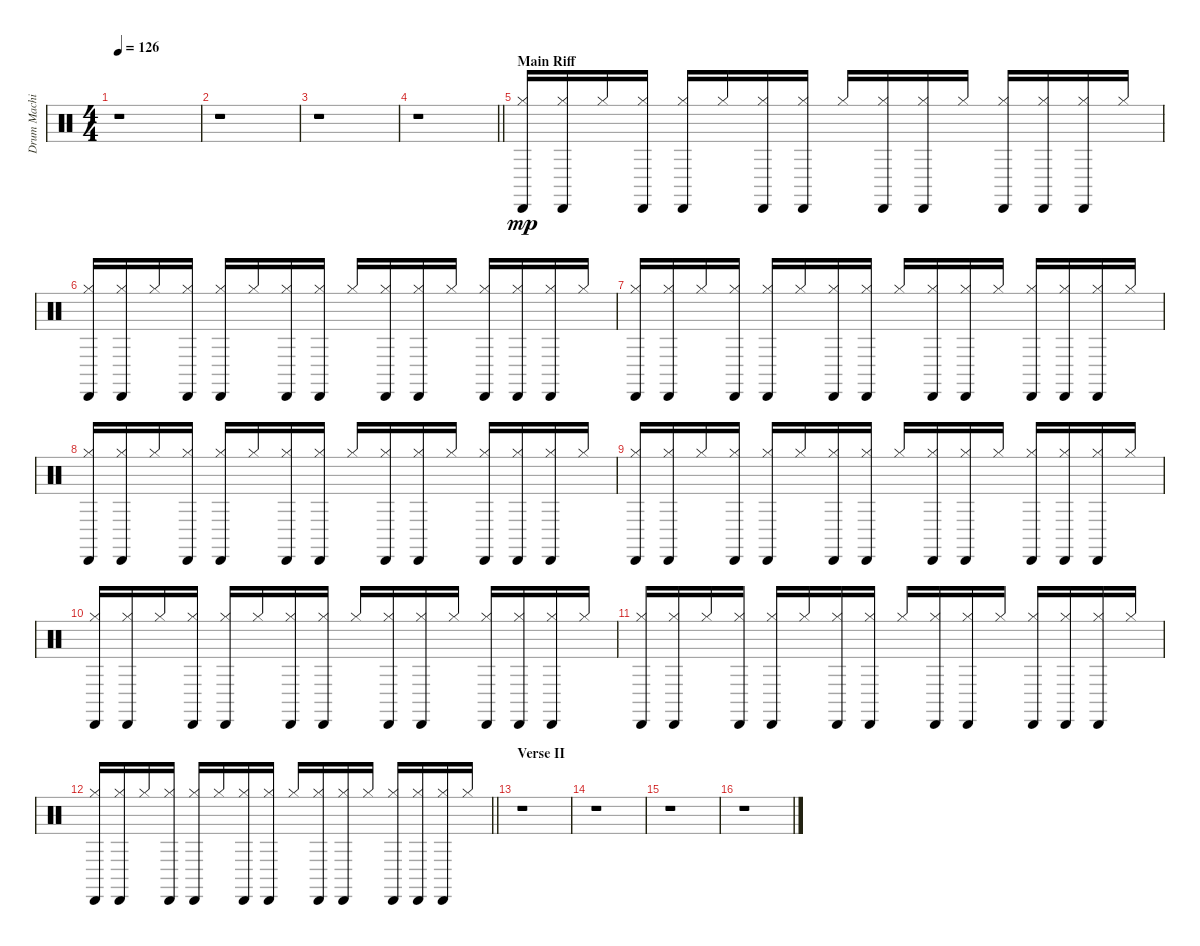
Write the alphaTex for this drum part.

\track ("Drum Machine" "Drum Machi") {instrument percussion}
\staff {score}
\articulation defaults
\ts (4 4)
\tempo 126
\clef neutral
\ks c
r.1{dy mp} |
r.1 |
r.1 |
\barLineRight lightlight
r.1 |
\section ("" "Main Riff")
("Cabasa (hit)" "Hi-Hat (closed)").16 ("Cabasa (hit)" "Hi-Hat (closed)").16 "Hi-Hat (closed)".16 ("Cabasa (hit)" "Hi-Hat (closed)").16 ("Cabasa (hit)" "Hi-Hat (closed)").16 "Hi-Hat (closed)".16 ("Cabasa (hit)" "Hi-Hat (closed)").16 ("Cabasa (hit)" "Hi-Hat (closed)").16 "Hi-Hat (closed)".16 ("Cabasa (hit)" "Hi-Hat (closed)").16 ("Cabasa (hit)" "Hi-Hat (closed)").16 "Hi-Hat (closed)".16 ("Cabasa (hit)" "Hi-Hat (closed)").16 ("Cabasa (hit)" "Hi-Hat (closed)").16 ("Cabasa (hit)" "Hi-Hat (closed)").16 "Hi-Hat (closed)".16 |
("Cabasa (hit)" "Hi-Hat (closed)").16 ("Cabasa (hit)" "Hi-Hat (closed)").16 "Hi-Hat (closed)".16 ("Cabasa (hit)" "Hi-Hat (closed)").16 ("Cabasa (hit)" "Hi-Hat (closed)").16 "Hi-Hat (closed)".16 ("Cabasa (hit)" "Hi-Hat (closed)").16 ("Cabasa (hit)" "Hi-Hat (closed)").16 "Hi-Hat (closed)".16 ("Cabasa (hit)" "Hi-Hat (closed)").16 ("Cabasa (hit)" "Hi-Hat (closed)").16 "Hi-Hat (closed)".16 ("Cabasa (hit)" "Hi-Hat (closed)").16 ("Cabasa (hit)" "Hi-Hat (closed)").16 ("Cabasa (hit)" "Hi-Hat (closed)").16 "Hi-Hat (closed)".16 |
("Cabasa (hit)" "Hi-Hat (closed)").16 ("Cabasa (hit)" "Hi-Hat (closed)").16 "Hi-Hat (closed)".16 ("Cabasa (hit)" "Hi-Hat (closed)").16 ("Cabasa (hit)" "Hi-Hat (closed)").16 "Hi-Hat (closed)".16 ("Cabasa (hit)" "Hi-Hat (closed)").16 ("Cabasa (hit)" "Hi-Hat (closed)").16 "Hi-Hat (closed)".16 ("Cabasa (hit)" "Hi-Hat (closed)").16 ("Cabasa (hit)" "Hi-Hat (closed)").16 "Hi-Hat (closed)".16 ("Cabasa (hit)" "Hi-Hat (closed)").16 ("Cabasa (hit)" "Hi-Hat (closed)").16 ("Cabasa (hit)" "Hi-Hat (closed)").16 "Hi-Hat (closed)".16 |
("Cabasa (hit)" "Hi-Hat (closed)").16 ("Cabasa (hit)" "Hi-Hat (closed)").16 "Hi-Hat (closed)".16 ("Cabasa (hit)" "Hi-Hat (closed)").16 ("Cabasa (hit)" "Hi-Hat (closed)").16 "Hi-Hat (closed)".16 ("Cabasa (hit)" "Hi-Hat (closed)").16 ("Cabasa (hit)" "Hi-Hat (closed)").16 "Hi-Hat (closed)".16 ("Cabasa (hit)" "Hi-Hat (closed)").16 ("Cabasa (hit)" "Hi-Hat (closed)").16 "Hi-Hat (closed)".16 ("Cabasa (hit)" "Hi-Hat (closed)").16 ("Cabasa (hit)" "Hi-Hat (closed)").16 ("Cabasa (hit)" "Hi-Hat (closed)").16 "Hi-Hat (closed)".16 |
("Cabasa (hit)" "Hi-Hat (closed)").16 ("Cabasa (hit)" "Hi-Hat (closed)").16 "Hi-Hat (closed)".16 ("Cabasa (hit)" "Hi-Hat (closed)").16 ("Cabasa (hit)" "Hi-Hat (closed)").16 "Hi-Hat (closed)".16 ("Cabasa (hit)" "Hi-Hat (closed)").16 ("Cabasa (hit)" "Hi-Hat (closed)").16 "Hi-Hat (closed)".16 ("Cabasa (hit)" "Hi-Hat (closed)").16 ("Cabasa (hit)" "Hi-Hat (closed)").16 "Hi-Hat (closed)".16 ("Cabasa (hit)" "Hi-Hat (closed)").16 ("Cabasa (hit)" "Hi-Hat (closed)").16 ("Cabasa (hit)" "Hi-Hat (closed)").16 "Hi-Hat (closed)".16 |
("Cabasa (hit)" "Hi-Hat (closed)").16 ("Cabasa (hit)" "Hi-Hat (closed)").16 "Hi-Hat (closed)".16 ("Cabasa (hit)" "Hi-Hat (closed)").16 ("Cabasa (hit)" "Hi-Hat (closed)").16 "Hi-Hat (closed)".16 ("Cabasa (hit)" "Hi-Hat (closed)").16 ("Cabasa (hit)" "Hi-Hat (closed)").16 "Hi-Hat (closed)".16 ("Cabasa (hit)" "Hi-Hat (closed)").16 ("Cabasa (hit)" "Hi-Hat (closed)").16 "Hi-Hat (closed)".16 ("Cabasa (hit)" "Hi-Hat (closed)").16 ("Cabasa (hit)" "Hi-Hat (closed)").16 ("Cabasa (hit)" "Hi-Hat (closed)").16 "Hi-Hat (closed)".16 |
("Cabasa (hit)" "Hi-Hat (closed)").16 ("Cabasa (hit)" "Hi-Hat (closed)").16 "Hi-Hat (closed)".16 ("Cabasa (hit)" "Hi-Hat (closed)").16 ("Cabasa (hit)" "Hi-Hat (closed)").16 "Hi-Hat (closed)".16 ("Cabasa (hit)" "Hi-Hat (closed)").16 ("Cabasa (hit)" "Hi-Hat (closed)").16 "Hi-Hat (closed)".16 ("Cabasa (hit)" "Hi-Hat (closed)").16 ("Cabasa (hit)" "Hi-Hat (closed)").16 "Hi-Hat (closed)".16 ("Cabasa (hit)" "Hi-Hat (closed)").16 ("Cabasa (hit)" "Hi-Hat (closed)").16 ("Cabasa (hit)" "Hi-Hat (closed)").16 "Hi-Hat (closed)".16 |
\barLineRight lightlight
("Cabasa (hit)" "Hi-Hat (closed)").16 ("Cabasa (hit)" "Hi-Hat (closed)").16 "Hi-Hat (closed)".16 ("Cabasa (hit)" "Hi-Hat (closed)").16 ("Cabasa (hit)" "Hi-Hat (closed)").16 "Hi-Hat (closed)".16 ("Cabasa (hit)" "Hi-Hat (closed)").16 ("Cabasa (hit)" "Hi-Hat (closed)").16 "Hi-Hat (closed)".16 ("Cabasa (hit)" "Hi-Hat (closed)").16 ("Cabasa (hit)" "Hi-Hat (closed)").16 "Hi-Hat (closed)".16 ("Cabasa (hit)" "Hi-Hat (closed)").16 ("Cabasa (hit)" "Hi-Hat (closed)").16 ("Cabasa (hit)" "Hi-Hat (closed)").16 "Hi-Hat (closed)".16 |
\section ("" "Verse II")
r.1 |
r.1 |
r.1 |
r.1
